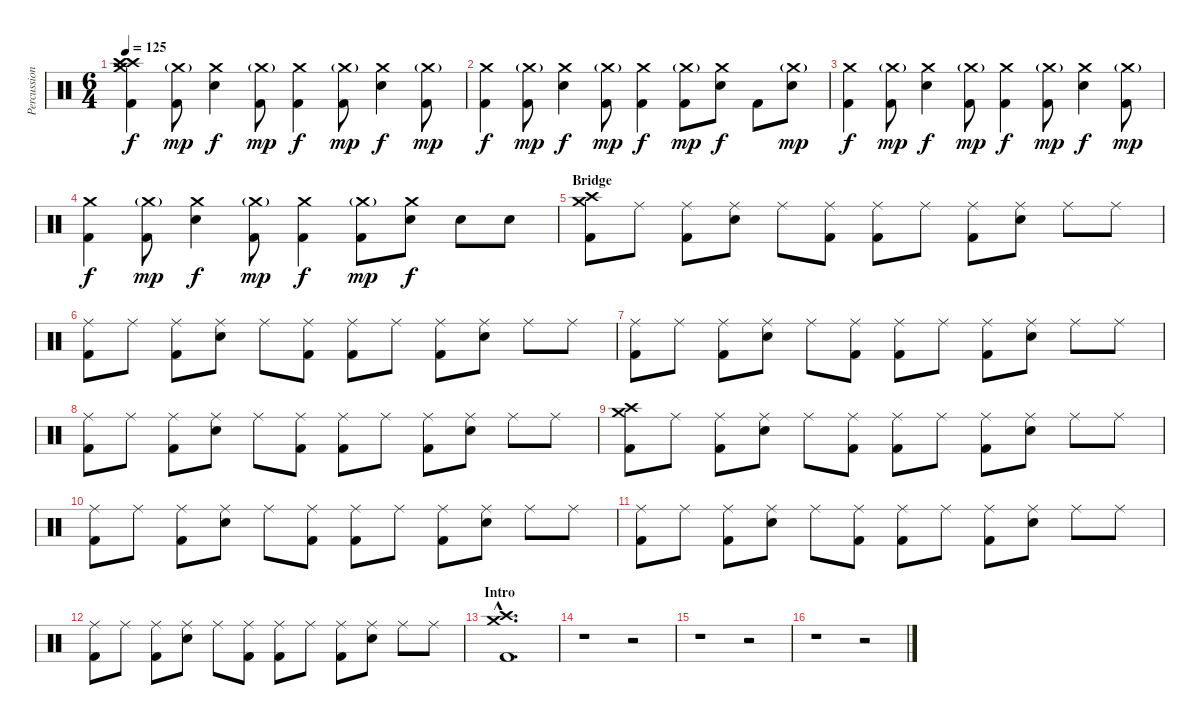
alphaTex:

\track ("Percussion" "Percussion") {instrument percussion}
\staff {score}
\articulation defaults
\ts (6 4)
\tempo 125
\clef neutral
\ks c
("Crash high (hit)" "Crash high (hit)" "Crash medium (hit)" "Kick (hit) 2").4{dy f} ("Crash medium (hit)"{g} "Kick (hit) 2").8{dy mp} ("Crash medium (hit)" "Electric Snare (hit)").4{dy f} ("Crash medium (hit)"{g} "Kick (hit) 2").8{dy mp} ("Crash medium (hit)" "Kick (hit) 2").4{dy f} ("Crash medium (hit)"{g} "Kick (hit) 2").8{dy mp} ("Crash medium (hit)" "Electric Snare (hit)").4{dy f} ("Crash medium (hit)"{g} "Kick (hit) 2").8{dy mp} |
("Crash medium (hit)" "Kick (hit) 2").4{dy f} ("Crash medium (hit)"{g} "Kick (hit) 2").8{dy mp} ("Crash medium (hit)" "Electric Snare (hit)").4{dy f} ("Crash medium (hit)"{g} "Kick (hit) 2").8{dy mp} ("Crash medium (hit)" "Kick (hit) 2").4{dy f} ("Crash medium (hit)"{g} "Kick (hit) 2").8{dy mp} ("Crash medium (hit)" "Electric Snare (hit)").8{dy f} "Kick (hit) 2".8 ("Crash medium (hit)"{g} "Electric Snare (hit)").8{dy mp} |
("Crash medium (hit)" "Kick (hit) 2").4{dy f} ("Crash medium (hit)"{g} "Kick (hit) 2").8{dy mp} ("Crash medium (hit)" "Electric Snare (hit)").4{dy f} ("Crash medium (hit)"{g} "Kick (hit) 2").8{dy mp} ("Crash medium (hit)" "Kick (hit) 2").4{dy f} ("Crash medium (hit)"{g} "Kick (hit) 2").8{dy mp} ("Crash medium (hit)" "Electric Snare (hit)").4{dy f} ("Crash medium (hit)"{g} "Kick (hit) 2").8{dy mp} |
("Crash medium (hit)" "Kick (hit) 2").4{dy f} ("Crash medium (hit)"{g} "Kick (hit) 2").8{dy mp} ("Crash medium (hit)" "Electric Snare (hit)").4{dy f} ("Crash medium (hit)"{g} "Kick (hit) 2").8{dy mp} ("Crash medium (hit)" "Kick (hit) 2").4{dy f} ("Crash medium (hit)"{g} "Kick (hit) 2").8{dy mp} ("Crash medium (hit)" "Electric Snare (hit)").8{dy f} "Electric Snare (hit)".8 "Electric Snare (hit)".8 |
\section ("" "Bridge")
("Crash high (hit)" "Crash medium (hit)" "Kick (hit) 2").8 "Ride (middle)".8 ("Ride (middle)" "Kick (hit) 2").8 ("Ride (middle)" "Electric Snare (hit)").8 "Ride (middle)".8 ("Ride (middle)" "Kick (hit) 2").8 ("Ride (middle)" "Kick (hit) 2").8 "Ride (middle)".8 ("Ride (middle)" "Kick (hit) 2").8 ("Ride (middle)" "Electric Snare (hit)").8 "Ride (middle)".8 "Ride (middle)".8 |
("Ride (middle)" "Kick (hit) 2").8 "Ride (middle)".8 ("Ride (middle)" "Kick (hit) 2").8 ("Ride (middle)" "Electric Snare (hit)").8 "Ride (middle)".8 ("Ride (middle)" "Kick (hit) 2").8 ("Ride (middle)" "Kick (hit) 2").8 "Ride (middle)".8 ("Ride (middle)" "Kick (hit) 2").8 ("Ride (middle)" "Electric Snare (hit)").8 "Ride (middle)".8 "Ride (middle)".8 |
("Ride (middle)" "Kick (hit) 2").8 "Ride (middle)".8 ("Ride (middle)" "Kick (hit) 2").8 ("Ride (middle)" "Electric Snare (hit)").8 "Ride (middle)".8 ("Ride (middle)" "Kick (hit) 2").8 ("Ride (middle)" "Kick (hit) 2").8 "Ride (middle)".8 ("Ride (middle)" "Kick (hit) 2").8 ("Ride (middle)" "Electric Snare (hit)").8 "Ride (middle)".8 "Ride (middle)".8 |
("Ride (middle)" "Kick (hit) 2").8 "Ride (middle)".8 ("Ride (middle)" "Kick (hit) 2").8 ("Ride (middle)" "Electric Snare (hit)").8 "Ride (middle)".8 ("Ride (middle)" "Kick (hit) 2").8 ("Ride (middle)" "Kick (hit) 2").8 "Ride (middle)".8 ("Ride (middle)" "Kick (hit) 2").8 ("Ride (middle)" "Electric Snare (hit)").8 "Ride (middle)".8 "Ride (middle)".8 |
("Crash high (hit)" "Crash medium (hit)" "Kick (hit) 2").8 "Ride (middle)".8 ("Ride (middle)" "Kick (hit) 2").8 ("Ride (middle)" "Electric Snare (hit)").8 "Ride (middle)".8 ("Ride (middle)" "Kick (hit) 2").8 ("Ride (middle)" "Kick (hit) 2").8 "Ride (middle)".8 ("Ride (middle)" "Kick (hit) 2").8 ("Ride (middle)" "Electric Snare (hit)").8 "Ride (middle)".8 "Ride (middle)".8 |
("Ride (middle)" "Kick (hit) 2").8 "Ride (middle)".8 ("Ride (middle)" "Kick (hit) 2").8 ("Ride (middle)" "Electric Snare (hit)").8 "Ride (middle)".8 ("Ride (middle)" "Kick (hit) 2").8 ("Ride (middle)" "Kick (hit) 2").8 "Ride (middle)".8 ("Ride (middle)" "Kick (hit) 2").8 ("Ride (middle)" "Electric Snare (hit)").8 "Ride (middle)".8 "Ride (middle)".8 |
("Ride (middle)" "Kick (hit) 2").8 "Ride (middle)".8 ("Ride (middle)" "Kick (hit) 2").8 ("Ride (middle)" "Electric Snare (hit)").8 "Ride (middle)".8 ("Ride (middle)" "Kick (hit) 2").8 ("Ride (middle)" "Kick (hit) 2").8 "Ride (middle)".8 ("Ride (middle)" "Kick (hit) 2").8 ("Ride (middle)" "Electric Snare (hit)").8 "Ride (middle)".8 "Ride (middle)".8 |
("Ride (middle)" "Kick (hit) 2").8 "Ride (middle)".8 ("Ride (middle)" "Kick (hit) 2").8 ("Ride (middle)" "Electric Snare (hit)").8 "Ride (middle)".8 ("Ride (middle)" "Kick (hit) 2").8 ("Ride (middle)" "Kick (hit) 2").8 "Ride (middle)".8 ("Ride (middle)" "Kick (hit) 2").8 ("Ride (middle)" "Electric Snare (hit)").8 "Ride (middle)".8 "Ride (middle)".8 |
\section ("" "Intro")
("Crash high (hit)"{hac} "Crash medium (hit)"{hac} "Kick (hit) 2"{hac}).1{d} |
r.1 r.2 |
r.1 r.2 |
r.1 r.2
